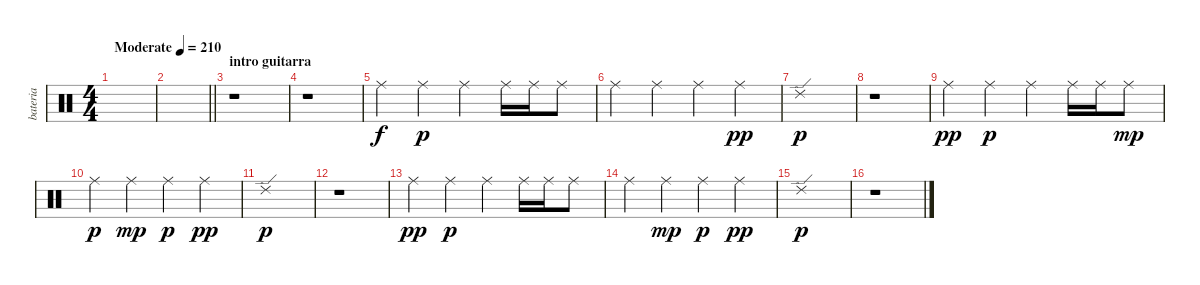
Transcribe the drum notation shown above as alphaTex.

\track ("bateria" "bateria") {instrument percussion}
\staff {score}
\articulation defaults
\ts (4 4)
\tempo (210 "Moderate")
\clef neutral
\ks c
|
\barLineRight lightlight
|
\section ("" "intro guitarra")
r.1 |
r.1 |
"Ride (middle)".4 "Ride (middle)".4{dy p} "Ride (middle)".4 "Ride (middle)".16 "Ride (middle)".16 "Ride (middle)".8 |
"Ride (middle)".4 "Ride (middle)".4 "Ride (middle)".4 "Ride (middle)".4{dy pp} |
"Ride (edge) 2".1{dy p} |
r.1 |
"Ride (middle)".4{dy pp} "Ride (middle)".4{dy p} "Ride (middle)".4 "Ride (middle)".16 "Ride (middle)".16 "Ride (middle)".8{dy mp} |
"Ride (middle)".4{dy p} "Ride (middle)".4{dy mp} "Ride (middle)".4{dy p} "Ride (middle)".4{dy pp} |
"Ride (edge) 2".1{dy p} |
r.1 |
"Ride (middle)".4{dy pp} "Ride (middle)".4{dy p} "Ride (middle)".4 "Ride (middle)".16 "Ride (middle)".16 "Ride (middle)".8 |
"Ride (middle)".4 "Ride (middle)".4{dy mp} "Ride (middle)".4{dy p} "Ride (middle)".4{dy pp} |
"Ride (edge) 2".1{dy p} |
r.1
